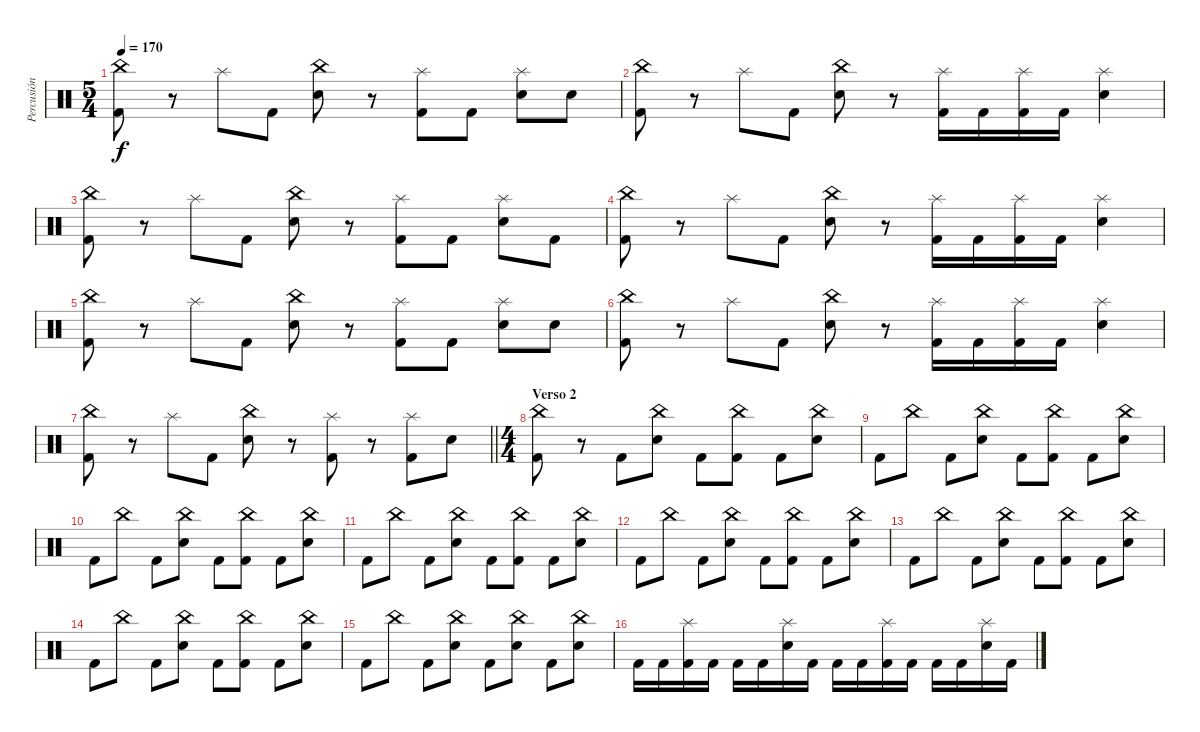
\track ("Percusión" "Percusión") {instrument percussion}
\staff {score}
\articulation defaults
\ts (5 4)
\tempo 170
\clef neutral
\ks c
("China (hit)" "Kick (hit) 2").8{dy f} r.8 "Splash (hit)".8 "Kick (hit) 2".8 ("China (hit)" "Snare (hit) 2").8 r.8 ("Splash (hit)" "Kick (hit) 2").8 "Kick (hit) 2".8 ("Splash (hit)" "Snare (hit) 2").8 "Snare (hit) 2".8 |
("China (hit)" "Kick (hit) 2").8 r.8 "Splash (hit)".8 "Kick (hit) 2".8 ("China (hit)" "Snare (hit) 2").8 r.8 ("Splash (hit)" "Kick (hit) 2").16 "Kick (hit) 2".16 ("Splash (hit)" "Kick (hit) 2").16 "Kick (hit) 2".16 ("Splash (hit)" "Snare (hit) 2").4 |
("China (hit)" "Kick (hit) 2").8 r.8 "Splash (hit)".8 "Kick (hit) 2".8 ("China (hit)" "Snare (hit) 2").8 r.8 ("Splash (hit)" "Kick (hit) 2").8 "Kick (hit) 2".8 ("Splash (hit)" "Snare (hit) 2").8 "Kick (hit) 2".8 |
("China (hit)" "Kick (hit) 2").8 r.8 "Splash (hit)".8 "Kick (hit) 2".8 ("China (hit)" "Snare (hit) 2").8 r.8 ("Splash (hit)" "Kick (hit) 2").16 "Kick (hit) 2".16 ("Splash (hit)" "Kick (hit) 2").16 "Kick (hit) 2".16 ("Splash (hit)" "Snare (hit) 2").4 |
("China (hit)" "Kick (hit) 2").8 r.8 "Splash (hit)".8 "Kick (hit) 2".8 ("China (hit)" "Snare (hit) 2").8 r.8 ("Splash (hit)" "Kick (hit) 2").8 "Kick (hit) 2".8 ("Splash (hit)" "Snare (hit) 2").8 "Snare (hit) 2".8 |
("China (hit)" "Kick (hit) 2").8 r.8 "Splash (hit)".8 "Kick (hit) 2".8 ("China (hit)" "Snare (hit) 2").8 r.8 ("Splash (hit)" "Kick (hit) 2").16 "Kick (hit) 2".16 ("Splash (hit)" "Kick (hit) 2").16 "Kick (hit) 2".16 ("Splash (hit)" "Snare (hit) 2").4 |
\barLineRight lightlight
("China (hit)" "Kick (hit) 2").8 r.8 "Splash (hit)".8 "Kick (hit) 2".8 ("China (hit)" "Snare (hit) 2").8 r.8 ("Splash (hit)" "Kick (hit) 2").8 r.8 ("Splash (hit)" "Kick (hit) 2").8 "Snare (hit) 2".8 |
\ts (4 4)
\section ("" "Verso 2")
("China (hit)" "Kick (hit) 2").8 r.8 "Kick (hit) 2".8 ("China (hit)" "Electric Snare (hit)").8 "Kick (hit) 2".8 ("China (hit)" "Kick (hit) 2").8 "Kick (hit) 2".8 ("China (hit)" "Electric Snare (hit)").8 |
"Kick (hit) 2".8 "China (hit)".8 "Kick (hit) 2".8 ("China (hit)" "Electric Snare (hit)").8 "Kick (hit) 2".8 ("China (hit)" "Kick (hit) 2").8 "Kick (hit) 2".8 ("China (hit)" "Electric Snare (hit)").8 |
"Kick (hit) 2".8 "China (hit)".8 "Kick (hit) 2".8 ("China (hit)" "Electric Snare (hit)").8 "Kick (hit) 2".8 ("China (hit)" "Kick (hit) 2").8 "Kick (hit) 2".8 ("China (hit)" "Electric Snare (hit)").8 |
"Kick (hit) 2".8 "China (hit)".8 "Kick (hit) 2".8 ("China (hit)" "Electric Snare (hit)").8 "Kick (hit) 2".8 ("China (hit)" "Kick (hit) 2").8 "Kick (hit) 2".8 ("China (hit)" "Electric Snare (hit)").8 |
"Kick (hit) 2".8 "China (hit)".8 "Kick (hit) 2".8 ("China (hit)" "Electric Snare (hit)").8 "Kick (hit) 2".8 ("China (hit)" "Kick (hit) 2").8 "Kick (hit) 2".8 ("China (hit)" "Electric Snare (hit)").8 |
"Kick (hit) 2".8 "China (hit)".8 "Kick (hit) 2".8 ("China (hit)" "Electric Snare (hit)").8 "Kick (hit) 2".8 ("China (hit)" "Kick (hit) 2").8 "Kick (hit) 2".8 ("China (hit)" "Electric Snare (hit)").8 |
"Kick (hit) 2".8 "China (hit)".8 "Kick (hit) 2".8 ("China (hit)" "Electric Snare (hit)").8 "Kick (hit) 2".8 ("China (hit)" "Kick (hit) 2").8 "Kick (hit) 2".8 ("China (hit)" "Electric Snare (hit)").8 |
"Kick (hit) 2".8 "China (hit)".8 "Kick (hit) 2".8 ("China (hit)" "Electric Snare (hit)").8 "Kick (hit) 2".8 ("China (hit)" "Electric Snare (hit)").8 "Kick (hit) 2".8 ("China (hit)" "Electric Snare (hit)").8 |
"Kick (hit) 2".16 "Kick (hit) 2".16 ("Splash (hit)" "Kick (hit) 2").16 "Kick (hit) 2".16 "Kick (hit) 2".16 "Kick (hit) 2".16 ("Splash (hit)" "Snare (hit) 2").16 "Kick (hit) 2".16 "Kick (hit) 2".16 "Kick (hit) 2".16 ("Splash (hit)" "Kick (hit) 2").16 "Kick (hit) 2".16 "Kick (hit) 2".16 "Kick (hit) 2".16 ("Splash (hit)" "Snare (hit) 2").16 "Kick (hit) 2".16
